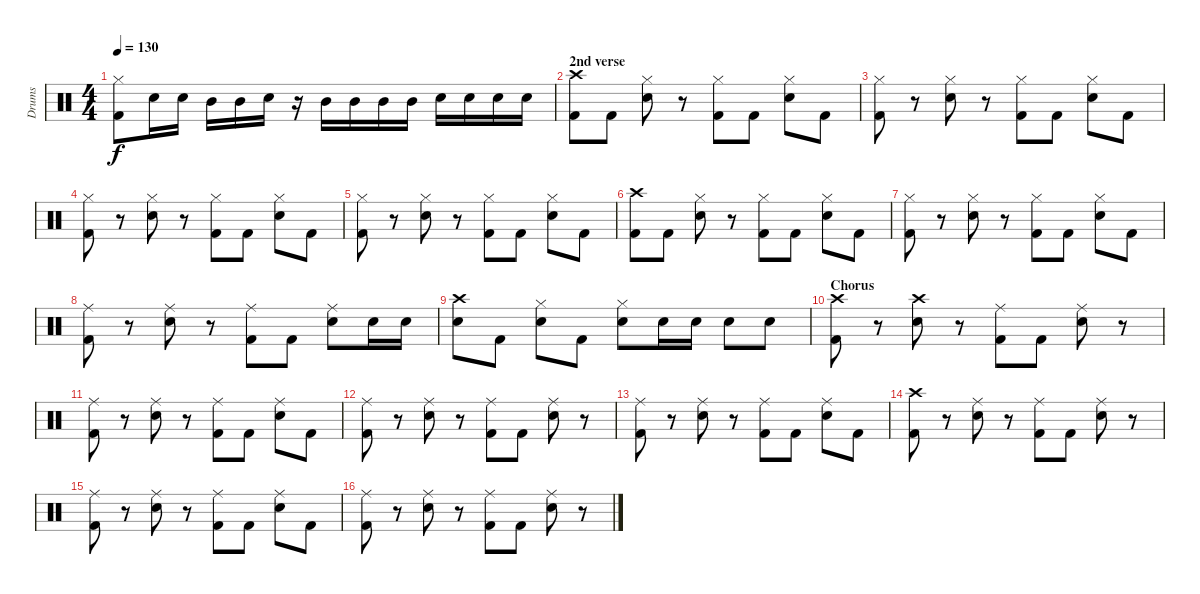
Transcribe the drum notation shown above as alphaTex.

\track ("Drums" "Drums") {instrument percussion}
\staff {score}
\articulation defaults
\ts (4 4)
\tempo 130
\clef neutral
\ks c
("Hi-Hat (closed)" "Kick (hit) 2").8{dy f} "Electric Snare (hit)".16 "Electric Snare (hit)".16 "Mid Tom (hit)".16 "Mid Tom (hit)".16 "Electric Snare (hit)".16 r.16 "Mid Tom (hit)".16 "Mid Tom (hit)".16 "Mid Tom (hit)".16 "Mid Tom (hit)".16 "Electric Snare (hit)".16 "Electric Snare (hit)".16 "Electric Snare (hit)".16 "Electric Snare (hit)".16 |
\section ("" "2nd verse")
("Crash high (hit)" "Kick (hit) 2").8 "Kick (hit) 2".8 ("Hi-Hat (closed)" "Electric Snare (hit)").8 r.8 ("Hi-Hat (closed)" "Kick (hit) 2").8 "Kick (hit) 2".8 ("Hi-Hat (closed)" "Electric Snare (hit)").8 "Kick (hit) 2".8 |
("Hi-Hat (closed)" "Kick (hit) 2").8 r.8 ("Hi-Hat (closed)" "Electric Snare (hit)").8 r.8 ("Hi-Hat (closed)" "Kick (hit) 2").8 "Kick (hit) 2".8 ("Hi-Hat (closed)" "Electric Snare (hit)").8 "Kick (hit) 2".8 |
("Hi-Hat (closed)" "Kick (hit) 2").8 r.8 ("Hi-Hat (closed)" "Electric Snare (hit)").8 r.8 ("Hi-Hat (closed)" "Kick (hit) 2").8 "Kick (hit) 2".8 ("Hi-Hat (closed)" "Electric Snare (hit)").8 "Kick (hit) 2".8 |
("Hi-Hat (closed)" "Kick (hit) 2").8 r.8 ("Hi-Hat (closed)" "Electric Snare (hit)").8 r.8 ("Hi-Hat (closed)" "Kick (hit) 2").8 "Kick (hit) 2".8 ("Hi-Hat (closed)" "Electric Snare (hit)").8 "Kick (hit) 2".8 |
("Crash high (hit)" "Kick (hit) 2").8 "Kick (hit) 2".8 ("Hi-Hat (closed)" "Electric Snare (hit)").8 r.8 ("Hi-Hat (closed)" "Kick (hit) 2").8 "Kick (hit) 2".8 ("Hi-Hat (closed)" "Electric Snare (hit)").8 "Kick (hit) 2".8 |
("Hi-Hat (closed)" "Kick (hit) 2").8 r.8 ("Hi-Hat (closed)" "Electric Snare (hit)").8 r.8 ("Hi-Hat (closed)" "Kick (hit) 2").8 "Kick (hit) 2".8 ("Hi-Hat (closed)" "Electric Snare (hit)").8 "Kick (hit) 2".8 |
("Ride (middle)" "Kick (hit) 2").8 r.8 ("Ride (middle)" "Electric Snare (hit)").8 r.8 ("Ride (middle)" "Kick (hit) 2").8 "Kick (hit) 2".8 ("Ride (middle)" "Electric Snare (hit)").8 "Electric Snare (hit)".16 "Electric Snare (hit)".16 |
("Crash high (hit)" "Electric Snare (hit)").8 "Kick (hit) 2".8 ("Hi-Hat (closed)" "Electric Snare (hit)").8 "Kick (hit) 2".8 ("Hi-Hat (closed)" "Electric Snare (hit)").8 "Electric Snare (hit)".16 "Electric Snare (hit)".16 "Electric Snare (hit)".8 "Electric Snare (hit)".8 |
\section ("" "Chorus")
("Crash high (hit)" "Kick (hit) 2").8 r.8 ("Crash high (hit)" "Electric Snare (hit)").8 r.8 ("Ride (middle)" "Kick (hit) 2").8 "Kick (hit) 2".8 ("Ride (middle)" "Electric Snare (hit)").8 r.8 |
("Ride (middle)" "Kick (hit) 2").8 r.8 ("Ride (middle)" "Electric Snare (hit)").8 r.8 ("Ride (middle)" "Kick (hit) 2").8 "Kick (hit) 2".8 ("Ride (middle)" "Electric Snare (hit)").8 "Kick (hit) 2".8 |
("Ride (middle)" "Kick (hit) 2").8 r.8 ("Ride (middle)" "Electric Snare (hit)").8 r.8 ("Ride (middle)" "Kick (hit) 2").8 "Kick (hit) 2".8 ("Ride (middle)" "Electric Snare (hit)").8 r.8 |
("Ride (middle)" "Kick (hit) 2").8 r.8 ("Ride (middle)" "Electric Snare (hit)").8 r.8 ("Ride (middle)" "Kick (hit) 2").8 "Kick (hit) 2".8 ("Ride (middle)" "Electric Snare (hit)").8 "Kick (hit) 2".8 |
("Crash high (hit)" "Kick (hit) 2").8 r.8 ("Ride (middle)" "Electric Snare (hit)").8 r.8 ("Ride (middle)" "Kick (hit) 2").8 "Kick (hit) 2".8 ("Ride (middle)" "Electric Snare (hit)").8 r.8 |
("Ride (middle)" "Kick (hit) 2").8 r.8 ("Ride (middle)" "Electric Snare (hit)").8 r.8 ("Ride (middle)" "Kick (hit) 2").8 "Kick (hit) 2".8 ("Ride (middle)" "Electric Snare (hit)").8 "Kick (hit) 2".8 |
("Ride (middle)" "Kick (hit) 2").8 r.8 ("Ride (middle)" "Electric Snare (hit)").8 r.8 ("Ride (middle)" "Kick (hit) 2").8 "Kick (hit) 2".8 ("Ride (middle)" "Electric Snare (hit)").8 r.8
